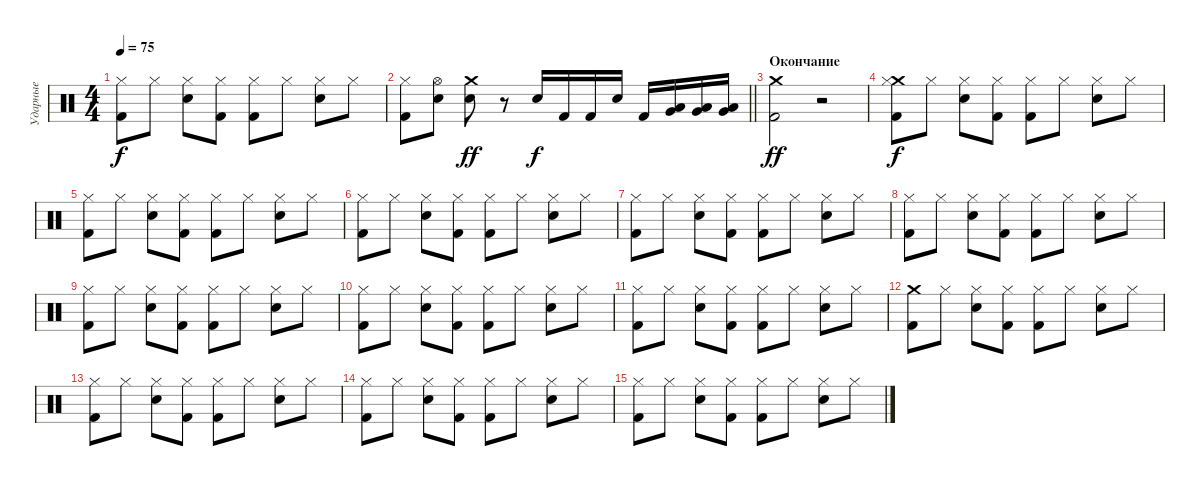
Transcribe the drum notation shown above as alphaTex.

\track ("Ударные" "Ударные") {instrument percussion}
\staff {score}
\articulation defaults
\ts (4 4)
\tempo 75
\clef neutral
\ks c
("Hi-Hat (closed)" "Kick (hit) 2").8{dy f} "Hi-Hat (closed)".8 ("Electric Snare (hit)" "Hi-Hat (closed)").8 ("Hi-Hat (closed)" "Kick (hit) 2").8 ("Hi-Hat (closed)" "Kick (hit) 2").8 "Hi-Hat (closed)".8 ("Electric Snare (hit)" "Hi-Hat (closed)").8 "Hi-Hat (closed)".8 |
\barLineRight lightlight
("Hi-Hat (closed)" "Kick (hit) 2").8 ("Electric Snare (hit)" "Hi-Hat (open)").8 ("Crash medium (hit)" "Electric Snare (hit)").8{dy ff} r.8 "Electric Snare (hit)".16{dy f} "Kick (hit) 2".16 "Kick (hit) 2".16 "Electric Snare (hit)".16 "Kick (hit) 2".16 ("Low Tom (hit)" "Very Low Tom (hit)").16 ("Low Tom (hit)" "Very Low Tom (hit)").16 ("Very Low Tom (hit)" "Low Floor Tom (hit)").16 |
\section ("" "Окончание")
("Crash medium (hit)" "Kick (hit) 2").2{dy ff} r.2 |
("Crash medium (hit)" "Hi-Hat (closed)" "Kick (hit) 2").8{dy f} "Hi-Hat (closed)".8 ("Electric Snare (hit)" "Hi-Hat (closed)").8 ("Hi-Hat (closed)" "Kick (hit) 2").8 ("Hi-Hat (closed)" "Kick (hit) 2").8 "Hi-Hat (closed)".8 ("Electric Snare (hit)" "Hi-Hat (closed)").8 "Hi-Hat (closed)".8 |
("Hi-Hat (closed)" "Kick (hit) 2").8 "Hi-Hat (closed)".8 ("Electric Snare (hit)" "Hi-Hat (closed)").8 ("Hi-Hat (closed)" "Kick (hit) 2").8 ("Hi-Hat (closed)" "Kick (hit) 2").8 "Hi-Hat (closed)".8 ("Electric Snare (hit)" "Hi-Hat (closed)").8 "Hi-Hat (closed)".8 |
("Hi-Hat (closed)" "Kick (hit) 2").8 "Hi-Hat (closed)".8 ("Electric Snare (hit)" "Hi-Hat (closed)").8 ("Hi-Hat (closed)" "Kick (hit) 2").8 ("Hi-Hat (closed)" "Kick (hit) 2").8 "Hi-Hat (closed)".8 ("Electric Snare (hit)" "Hi-Hat (closed)").8 "Hi-Hat (closed)".8 |
("Hi-Hat (closed)" "Kick (hit) 2").8 "Hi-Hat (closed)".8 ("Electric Snare (hit)" "Hi-Hat (closed)").8 ("Hi-Hat (closed)" "Kick (hit) 2").8 ("Hi-Hat (closed)" "Kick (hit) 2").8 "Hi-Hat (closed)".8 ("Electric Snare (hit)" "Hi-Hat (closed)").8 "Hi-Hat (closed)".8 |
("Hi-Hat (closed)" "Kick (hit) 2").8 "Hi-Hat (closed)".8 ("Electric Snare (hit)" "Hi-Hat (closed)").8 ("Hi-Hat (closed)" "Kick (hit) 2").8 ("Hi-Hat (closed)" "Kick (hit) 2").8 "Hi-Hat (closed)".8 ("Electric Snare (hit)" "Hi-Hat (closed)").8 "Hi-Hat (closed)".8 |
("Hi-Hat (closed)" "Kick (hit) 2").8 "Hi-Hat (closed)".8 ("Electric Snare (hit)" "Hi-Hat (closed)").8 ("Hi-Hat (closed)" "Kick (hit) 2").8 ("Hi-Hat (closed)" "Kick (hit) 2").8 "Hi-Hat (closed)".8 ("Electric Snare (hit)" "Hi-Hat (closed)").8 "Hi-Hat (closed)".8 |
("Hi-Hat (closed)" "Kick (hit) 2").8 "Hi-Hat (closed)".8 ("Electric Snare (hit)" "Hi-Hat (closed)").8 ("Hi-Hat (closed)" "Kick (hit) 2").8 ("Hi-Hat (closed)" "Kick (hit) 2").8 "Hi-Hat (closed)".8 ("Electric Snare (hit)" "Hi-Hat (closed)").8 "Hi-Hat (closed)".8 |
("Hi-Hat (closed)" "Kick (hit) 2").8 "Hi-Hat (closed)".8 ("Electric Snare (hit)" "Hi-Hat (closed)").8 ("Hi-Hat (closed)" "Kick (hit) 2").8 ("Hi-Hat (closed)" "Kick (hit) 2").8 "Hi-Hat (closed)".8 ("Electric Snare (hit)" "Hi-Hat (closed)").8 "Hi-Hat (closed)".8 |
("Crash medium (hit)" "Kick (hit) 2").8{volume 0} "Hi-Hat (closed)".8 ("Electric Snare (hit)" "Hi-Hat (closed)").8 ("Hi-Hat (closed)" "Kick (hit) 2").8 ("Hi-Hat (closed)" "Kick (hit) 2").8 "Hi-Hat (closed)".8 ("Electric Snare (hit)" "Hi-Hat (closed)").8 "Hi-Hat (closed)".8 |
("Hi-Hat (closed)" "Kick (hit) 2").8 "Hi-Hat (closed)".8 ("Electric Snare (hit)" "Hi-Hat (closed)").8 ("Hi-Hat (closed)" "Kick (hit) 2").8 ("Hi-Hat (closed)" "Kick (hit) 2").8 "Hi-Hat (closed)".8 ("Electric Snare (hit)" "Hi-Hat (closed)").8 "Hi-Hat (closed)".8 |
("Hi-Hat (closed)" "Kick (hit) 2").8 "Hi-Hat (closed)".8 ("Electric Snare (hit)" "Hi-Hat (closed)").8 ("Hi-Hat (closed)" "Kick (hit) 2").8 ("Hi-Hat (closed)" "Kick (hit) 2").8 "Hi-Hat (closed)".8 ("Electric Snare (hit)" "Hi-Hat (closed)").8 "Hi-Hat (closed)".8 |
("Hi-Hat (closed)" "Kick (hit) 2").8 "Hi-Hat (closed)".8 ("Electric Snare (hit)" "Hi-Hat (closed)").8 ("Hi-Hat (closed)" "Kick (hit) 2").8 ("Hi-Hat (closed)" "Kick (hit) 2").8 "Hi-Hat (closed)".8 ("Electric Snare (hit)" "Hi-Hat (closed)").8 "Hi-Hat (closed)".8
